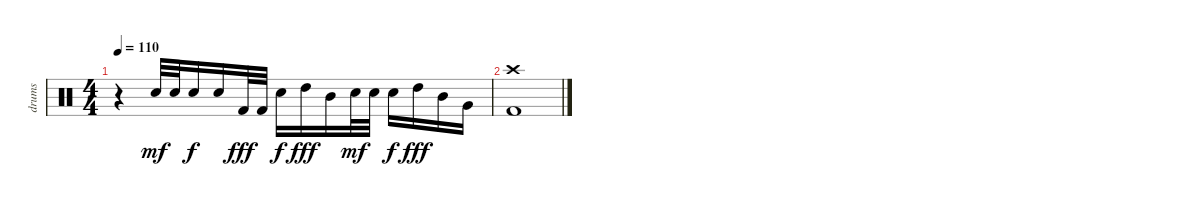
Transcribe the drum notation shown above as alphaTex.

\track ("drums" "drums") {instrument percussion}
\staff {score}
\articulation defaults
\ts (4 4)
\tempo 110
\clef neutral
\ks c
r.4{dy fff} "Snare (hit) 2".32{dy mf} "Snare (hit) 2".32 "Snare (hit) 2".16{dy f} "Snare (hit) 2".16 "Kick (hit) 2".32{dy fff} "Kick (hit) 2".32 "Snare (hit) 2".16{dy f} "High Tom (hit)".16{dy fff} "Mid Tom (hit)".16 "Snare (hit) 2".32{dy mf} "Snare (hit) 2".32 "Snare (hit) 2".16{dy f} "High Tom (hit)".16{dy fff} "Mid Tom (hit)".16 "Very Low Tom (hit)".16 |
("Crash high (hit)" "Kick (hit) 2").1
